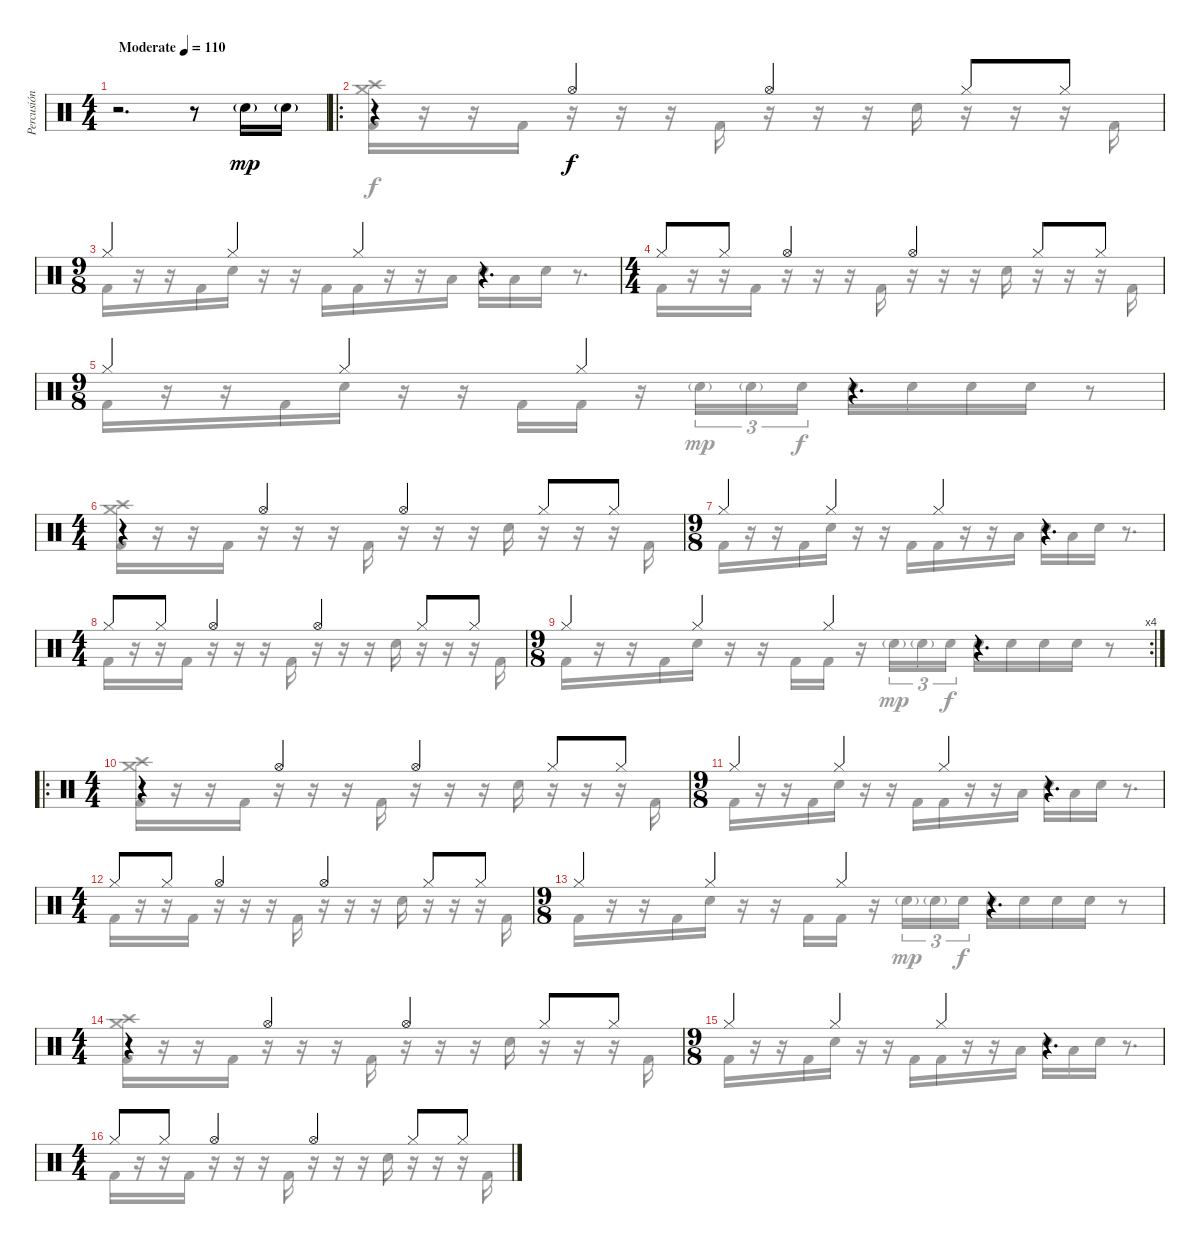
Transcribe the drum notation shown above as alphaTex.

\track ("Percusión" "Percusión") {instrument percussion}
\staff {score}
\articulation defaults
\voice
\ts (4 4)
\tempo (110 "Moderate")
\clef neutral
\ks c
r.2{d dy mp} r.8 "Snare (hit) 2"{g}.16 "Snare (hit) 2"{g}.16 |
\ro
r.4 "Hi-Hat (open)".4{dy f} "Hi-Hat (open)".4 "Hi-Hat (closed)".8 "Hi-Hat (closed)".8 |
\ts (9 8)
"Hi-Hat (closed)".4 "Hi-Hat (closed)".4 "Hi-Hat (closed)".4 r.4{d} |
\ts (4 4)
"Hi-Hat (closed)".8 "Hi-Hat (closed)".8 "Hi-Hat (open)".4 "Hi-Hat (open)".4 "Hi-Hat (closed)".8 "Hi-Hat (closed)".8 |
\ts (9 8)
"Hi-Hat (closed)".4 "Hi-Hat (closed)".4 "Hi-Hat (closed)".4 r.4{d} |
\ts (4 4)
r.4 "Hi-Hat (open)".4 "Hi-Hat (open)".4 "Hi-Hat (closed)".8 "Hi-Hat (closed)".8 |
\ts (9 8)
"Hi-Hat (closed)".4 "Hi-Hat (closed)".4 "Hi-Hat (closed)".4 r.4{d} |
\ts (4 4)
"Hi-Hat (closed)".8 "Hi-Hat (closed)".8 "Hi-Hat (open)".4 "Hi-Hat (open)".4 "Hi-Hat (closed)".8 "Hi-Hat (closed)".8 |
\rc 4
\ts (9 8)
"Hi-Hat (closed)".4 "Hi-Hat (closed)".4 "Hi-Hat (closed)".4 r.4{d} |
\ro
\ts (4 4)
r.4 "Hi-Hat (open)".4 "Hi-Hat (open)".4 "Hi-Hat (closed)".8 "Hi-Hat (closed)".8 |
\ts (9 8)
"Hi-Hat (closed)".4 "Hi-Hat (closed)".4 "Hi-Hat (closed)".4 r.4{d} |
\ts (4 4)
"Hi-Hat (closed)".8 "Hi-Hat (closed)".8 "Hi-Hat (open)".4 "Hi-Hat (open)".4 "Hi-Hat (closed)".8 "Hi-Hat (closed)".8 |
\ts (9 8)
"Hi-Hat (closed)".4 "Hi-Hat (closed)".4 "Hi-Hat (closed)".4 r.4{d} |
\ts (4 4)
r.4 "Hi-Hat (open)".4 "Hi-Hat (open)".4 "Hi-Hat (closed)".8 "Hi-Hat (closed)".8 |
\ts (9 8)
"Hi-Hat (closed)".4 "Hi-Hat (closed)".4 "Hi-Hat (closed)".4 r.4{d} |
\ts (4 4)
"Hi-Hat (closed)".8 "Hi-Hat (closed)".8 "Hi-Hat (open)".4 "Hi-Hat (open)".4 "Hi-Hat (closed)".8 "Hi-Hat (closed)".8
\voice
\clef neutral
\ottava regular
\simile none
\ks c
|
("Crash high (hit)" "Crash medium (hit)" "Kick (hit) 2").16 r.16 r.16 "Kick (hit) 2".16 r.16 r.16 r.16 "Kick (hit) 2".16 r.16 r.16 r.16 "Snare (hit) 2".16 r.16 r.16 r.16 "Kick (hit) 2".16 |
"Kick (hit) 2".16 r.16 r.16 "Kick (hit) 2".16 "Snare (hit) 2".16 r.16 r.16 "Kick (hit) 2".16 "Kick (hit) 2".16 r.16 r.16 "Low Tom (hit)".16 "Snare (hit) 2".16 "Low Tom (hit)".16 "Snare (hit) 2".16 r.8{d} |
"Kick (hit) 2".16 r.16 r.16 "Kick (hit) 2".16 r.16 r.16 r.16 "Kick (hit) 2".16 r.16 r.16 r.16 "Snare (hit) 2".16 r.16 r.16 r.16 "Kick (hit) 2".16 |
"Kick (hit) 2".16 r.16 r.16 "Kick (hit) 2".16 "Snare (hit) 2".16 r.16 r.16 "Kick (hit) 2".16 "Kick (hit) 2".16 r.16 "Snare (hit) 2"{g}.16{tu (3 2) dy mp} "Snare (hit) 2"{g}.16{tu (3 2)} "Snare (hit) 2".16{tu (3 2) dy f} "Snare (hit) 2".16 "Snare (hit) 2".16 "Snare (hit) 2".16 "Snare (hit) 2".16 r.8 |
("Crash high (hit)" "Crash medium (hit)" "Kick (hit) 2").16 r.16 r.16 "Kick (hit) 2".16 r.16 r.16 r.16 "Kick (hit) 2".16 r.16 r.16 r.16 "Snare (hit) 2".16 r.16 r.16 r.16 "Kick (hit) 2".16 |
"Kick (hit) 2".16 r.16 r.16 "Kick (hit) 2".16 "Snare (hit) 2".16 r.16 r.16 "Kick (hit) 2".16 "Kick (hit) 2".16 r.16 r.16 "Low Tom (hit)".16 "Snare (hit) 2".16 "Low Tom (hit)".16 "Snare (hit) 2".16 r.8{d} |
"Kick (hit) 2".16 r.16 r.16 "Kick (hit) 2".16 r.16 r.16 r.16 "Kick (hit) 2".16 r.16 r.16 r.16 "Snare (hit) 2".16 r.16 r.16 r.16 "Kick (hit) 2".16 |
"Kick (hit) 2".16 r.16 r.16 "Kick (hit) 2".16 "Snare (hit) 2".16 r.16 r.16 "Kick (hit) 2".16 "Kick (hit) 2".16 r.16 "Snare (hit) 2"{g}.16{tu (3 2) dy mp} "Snare (hit) 2"{g}.16{tu (3 2)} "Snare (hit) 2".16{tu (3 2) dy f} "Snare (hit) 2".16 "Snare (hit) 2".16 "Snare (hit) 2".16 "Snare (hit) 2".16 r.8 |
("Crash high (hit)" "Crash medium (hit)" "Kick (hit) 2").16 r.16 r.16 "Kick (hit) 2".16 r.16 r.16 r.16 "Kick (hit) 2".16 r.16 r.16 r.16 "Snare (hit) 2".16 r.16 r.16 r.16 "Kick (hit) 2".16 |
"Kick (hit) 2".16 r.16 r.16 "Kick (hit) 2".16 "Snare (hit) 2".16 r.16 r.16 "Kick (hit) 2".16 "Kick (hit) 2".16 r.16 r.16 "Low Tom (hit)".16 "Snare (hit) 2".16 "Low Tom (hit)".16 "Snare (hit) 2".16 r.8{d} |
"Kick (hit) 2".16 r.16 r.16 "Kick (hit) 2".16 r.16 r.16 r.16 "Kick (hit) 2".16 r.16 r.16 r.16 "Snare (hit) 2".16 r.16 r.16 r.16 "Kick (hit) 2".16 |
"Kick (hit) 2".16 r.16 r.16 "Kick (hit) 2".16 "Snare (hit) 2".16 r.16 r.16 "Kick (hit) 2".16 "Kick (hit) 2".16 r.16 "Snare (hit) 2"{g}.16{tu (3 2) dy mp} "Snare (hit) 2"{g}.16{tu (3 2)} "Snare (hit) 2".16{tu (3 2) dy f} "Snare (hit) 2".16 "Snare (hit) 2".16 "Snare (hit) 2".16 "Snare (hit) 2".16 r.8 |
("Crash high (hit)" "Crash medium (hit)" "Kick (hit) 2").16 r.16 r.16 "Kick (hit) 2".16 r.16 r.16 r.16 "Kick (hit) 2".16 r.16 r.16 r.16 "Snare (hit) 2".16 r.16 r.16 r.16 "Kick (hit) 2".16 |
"Kick (hit) 2".16 r.16 r.16 "Kick (hit) 2".16 "Snare (hit) 2".16 r.16 r.16 "Kick (hit) 2".16 "Kick (hit) 2".16 r.16 r.16 "Low Tom (hit)".16 "Snare (hit) 2".16 "Low Tom (hit)".16 "Snare (hit) 2".16 r.8{d} |
"Kick (hit) 2".16 r.16 r.16 "Kick (hit) 2".16 r.16 r.16 r.16 "Kick (hit) 2".16 r.16 r.16 r.16 "Snare (hit) 2".16 r.16 r.16 r.16 "Kick (hit) 2".16
